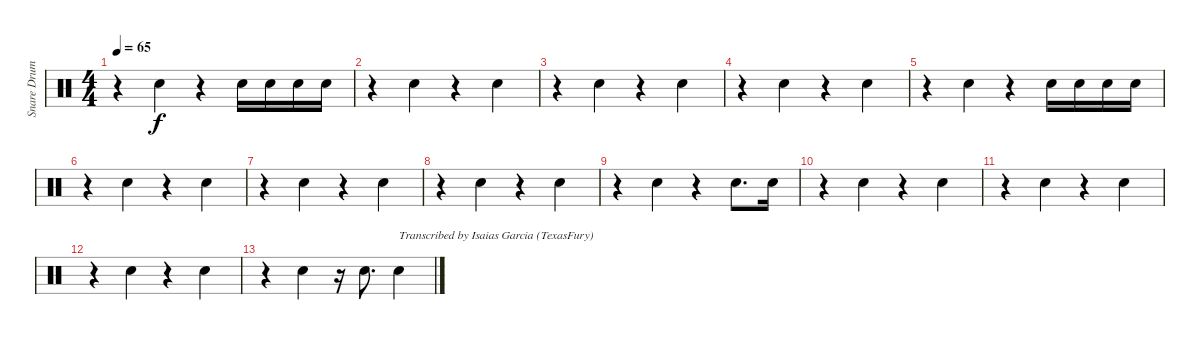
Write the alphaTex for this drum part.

\track ("Snare Drum - reverb" "Snare Drum") {instrument percussion}
\staff {score}
\articulation defaults
\ts (4 4)
\tempo 65
\clef neutral
\ks c
r.4{dy f beam merge} "Snare (hit) 2".4 r.4 "Snare (hit) 2".16 "Snare (hit) 2".16 "Snare (hit) 2".16 "Snare (hit) 2".16 |
r.4 "Snare (hit) 2".4 r.4 "Snare (hit) 2".4 |
r.4 "Snare (hit) 2".4 r.4 "Snare (hit) 2".4 |
r.4 "Snare (hit) 2".4 r.4 "Snare (hit) 2".4 |
r.4{beam merge} "Snare (hit) 2".4 r.4 "Snare (hit) 2".16 "Snare (hit) 2".16 "Snare (hit) 2".16 "Snare (hit) 2".16 |
r.4 "Snare (hit) 2".4 r.4 "Snare (hit) 2".4 |
r.4 "Snare (hit) 2".4 r.4 "Snare (hit) 2".4 |
r.4 "Snare (hit) 2".4 r.4 "Snare (hit) 2".4 |
r.4{beam merge} "Snare (hit) 2".4 r.4 "Snare (hit) 2".8{d} "Snare (hit) 2".16 |
r.4 "Snare (hit) 2".4 r.4 "Snare (hit) 2".4 |
r.4 "Snare (hit) 2".4 r.4 "Snare (hit) 2".4 |
r.4 "Snare (hit) 2".4 r.4 "Snare (hit) 2".4 |
r.4 "Snare (hit) 2".4 r.16 "Snare (hit) 2".8{d} "Snare (hit) 2".4{txt "Transcribed by Isaias Garcia (TexasFury)"}
